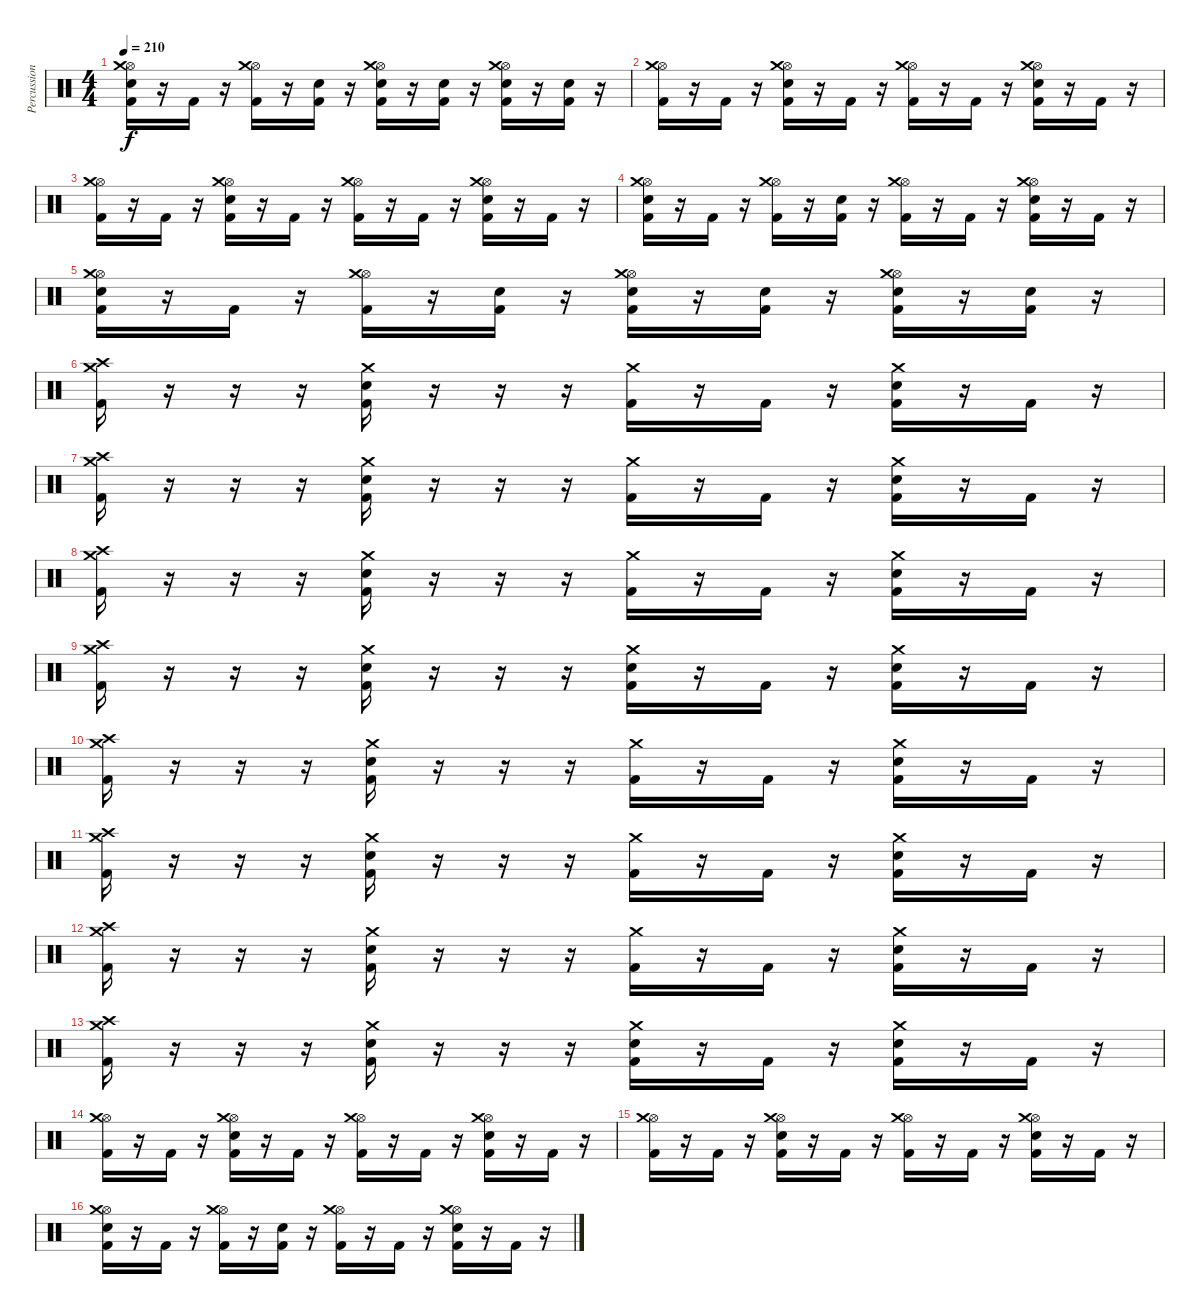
\track ("Percussion" "Percussion") {instrument percussion}
\staff {score}
\articulation defaults
\ts (4 4)
\tempo 210
\clef neutral
\ks c
("Kick (hit) 2" "Electric Snare (hit)" "Hi-Hat (open)" "Crash medium (hit)").16{dy f} r.16 "Kick (hit) 2".16 r.16 ("Kick (hit) 2" "Hi-Hat (open)" "Crash medium (hit)").16 r.16 ("Kick (hit) 2" "Electric Snare (hit)").16 r.16 ("Kick (hit) 2" "Electric Snare (hit)" "Hi-Hat (open)" "Crash medium (hit)").16 r.16 ("Kick (hit) 2" "Electric Snare (hit)").16 r.16 ("Kick (hit) 2" "Electric Snare (hit)" "Hi-Hat (open)" "Crash medium (hit)").16 r.16 ("Kick (hit) 2" "Electric Snare (hit)").16 r.16 |
("Kick (hit) 2" "Hi-Hat (open)" "Crash medium (hit)").16 r.16 "Kick (hit) 2".16 r.16 ("Kick (hit) 2" "Electric Snare (hit)" "Hi-Hat (open)" "Crash medium (hit)").16 r.16 "Kick (hit) 2".16 r.16 ("Kick (hit) 2" "Hi-Hat (open)" "Crash medium (hit)").16 r.16 "Kick (hit) 2".16 r.16 ("Kick (hit) 2" "Electric Snare (hit)" "Hi-Hat (open)" "Crash medium (hit)").16 r.16 "Kick (hit) 2".16 r.16 |
("Kick (hit) 2" "Hi-Hat (open)" "Crash medium (hit)").16 r.16 "Kick (hit) 2".16 r.16 ("Kick (hit) 2" "Electric Snare (hit)" "Hi-Hat (open)" "Crash medium (hit)").16 r.16 "Kick (hit) 2".16 r.16 ("Kick (hit) 2" "Hi-Hat (open)" "Crash medium (hit)").16 r.16 "Kick (hit) 2".16 r.16 ("Kick (hit) 2" "Electric Snare (hit)" "Hi-Hat (open)" "Crash medium (hit)").16 r.16 "Kick (hit) 2".16 r.16 |
("Kick (hit) 2" "Electric Snare (hit)" "Hi-Hat (open)" "Crash medium (hit)").16 r.16 "Kick (hit) 2".16 r.16 ("Kick (hit) 2" "Hi-Hat (open)" "Crash medium (hit)").16 r.16 ("Kick (hit) 2" "Electric Snare (hit)").16 r.16 ("Kick (hit) 2" "Hi-Hat (open)" "Crash medium (hit)").16 r.16 "Kick (hit) 2".16 r.16 ("Kick (hit) 2" "Electric Snare (hit)" "Hi-Hat (open)" "Crash medium (hit)").16 r.16 "Kick (hit) 2".16 r.16 |
("Kick (hit) 2" "Electric Snare (hit)" "Hi-Hat (open)" "Crash medium (hit)").16 r.16 "Kick (hit) 2".16 r.16 ("Kick (hit) 2" "Hi-Hat (open)" "Crash medium (hit)").16 r.16 ("Kick (hit) 2" "Electric Snare (hit)").16 r.16 ("Kick (hit) 2" "Electric Snare (hit)" "Hi-Hat (open)" "Crash medium (hit)").16 r.16 ("Kick (hit) 2" "Electric Snare (hit)").16 r.16 ("Kick (hit) 2" "Electric Snare (hit)" "Hi-Hat (open)" "Crash medium (hit)").16 r.16 ("Kick (hit) 2" "Electric Snare (hit)").16 r.16 |
("Kick (hit) 2" "Crash high (hit)" "Crash medium (hit)").16 r.16 r.16 r.16 ("Kick (hit) 2" "Electric Snare (hit)" "Crash medium (hit)").16 r.16 r.16 r.16 ("Kick (hit) 2" "Crash medium (hit)").16 r.16 "Kick (hit) 2".16 r.16 ("Kick (hit) 2" "Electric Snare (hit)" "Crash medium (hit)").16 r.16 "Kick (hit) 2".16 r.16 |
("Kick (hit) 2" "Crash high (hit)" "Crash medium (hit)").16 r.16 r.16 r.16 ("Kick (hit) 2" "Electric Snare (hit)" "Crash medium (hit)").16 r.16 r.16 r.16 ("Kick (hit) 2" "Crash medium (hit)").16 r.16 "Kick (hit) 2".16 r.16 ("Kick (hit) 2" "Electric Snare (hit)" "Crash medium (hit)").16 r.16 "Kick (hit) 2".16 r.16 |
("Kick (hit) 2" "Crash high (hit)" "Crash medium (hit)").16 r.16 r.16 r.16 ("Kick (hit) 2" "Electric Snare (hit)" "Crash medium (hit)").16 r.16 r.16 r.16 ("Kick (hit) 2" "Crash medium (hit)").16 r.16 "Kick (hit) 2".16 r.16 ("Kick (hit) 2" "Electric Snare (hit)" "Crash medium (hit)").16 r.16 "Kick (hit) 2".16 r.16 |
("Kick (hit) 2" "Crash high (hit)" "Crash medium (hit)").16 r.16 r.16 r.16 ("Kick (hit) 2" "Electric Snare (hit)" "Crash medium (hit)").16 r.16 r.16 r.16 ("Kick (hit) 2" "Electric Snare (hit)" "Crash medium (hit)").16 r.16 "Kick (hit) 2".16 r.16 ("Kick (hit) 2" "Electric Snare (hit)" "Crash medium (hit)").16 r.16 "Kick (hit) 2".16 r.16 |
("Kick (hit) 2" "Crash high (hit)" "Crash medium (hit)").16 r.16 r.16 r.16 ("Kick (hit) 2" "Electric Snare (hit)" "Crash medium (hit)").16 r.16 r.16 r.16 ("Kick (hit) 2" "Crash medium (hit)").16 r.16 "Kick (hit) 2".16 r.16 ("Kick (hit) 2" "Electric Snare (hit)" "Crash medium (hit)").16 r.16 "Kick (hit) 2".16 r.16 |
("Kick (hit) 2" "Crash high (hit)" "Crash medium (hit)").16 r.16 r.16 r.16 ("Kick (hit) 2" "Electric Snare (hit)" "Crash medium (hit)").16 r.16 r.16 r.16 ("Kick (hit) 2" "Crash medium (hit)").16 r.16 "Kick (hit) 2".16 r.16 ("Kick (hit) 2" "Electric Snare (hit)" "Crash medium (hit)").16 r.16 "Kick (hit) 2".16 r.16 |
("Kick (hit) 2" "Crash high (hit)" "Crash medium (hit)").16 r.16 r.16 r.16 ("Kick (hit) 2" "Electric Snare (hit)" "Crash medium (hit)").16 r.16 r.16 r.16 ("Kick (hit) 2" "Crash medium (hit)").16 r.16 "Kick (hit) 2".16 r.16 ("Kick (hit) 2" "Electric Snare (hit)" "Crash medium (hit)").16 r.16 "Kick (hit) 2".16 r.16 |
("Kick (hit) 2" "Crash high (hit)" "Crash medium (hit)").16 r.16 r.16 r.16 ("Kick (hit) 2" "Electric Snare (hit)" "Crash medium (hit)").16 r.16 r.16 r.16 ("Kick (hit) 2" "Electric Snare (hit)" "Crash medium (hit)").16 r.16 "Kick (hit) 2".16 r.16 ("Kick (hit) 2" "Electric Snare (hit)" "Crash medium (hit)").16 r.16 "Kick (hit) 2".16 r.16 |
("Kick (hit) 2" "Hi-Hat (open)" "Crash medium (hit)").16 r.16 "Kick (hit) 2".16 r.16 ("Kick (hit) 2" "Electric Snare (hit)" "Hi-Hat (open)" "Crash medium (hit)").16 r.16 "Kick (hit) 2".16 r.16 ("Kick (hit) 2" "Hi-Hat (open)" "Crash medium (hit)").16 r.16 "Kick (hit) 2".16 r.16 ("Kick (hit) 2" "Electric Snare (hit)" "Hi-Hat (open)" "Crash medium (hit)").16 r.16 "Kick (hit) 2".16 r.16 |
("Kick (hit) 2" "Hi-Hat (open)" "Crash medium (hit)").16 r.16 "Kick (hit) 2".16 r.16 ("Kick (hit) 2" "Electric Snare (hit)" "Hi-Hat (open)" "Crash medium (hit)").16 r.16 "Kick (hit) 2".16 r.16 ("Kick (hit) 2" "Hi-Hat (open)" "Crash medium (hit)").16 r.16 "Kick (hit) 2".16 r.16 ("Kick (hit) 2" "Electric Snare (hit)" "Hi-Hat (open)" "Crash medium (hit)").16 r.16 "Kick (hit) 2".16 r.16 |
("Kick (hit) 2" "Electric Snare (hit)" "Hi-Hat (open)" "Crash medium (hit)").16 r.16 "Kick (hit) 2".16 r.16 ("Kick (hit) 2" "Hi-Hat (open)" "Crash medium (hit)").16 r.16 ("Kick (hit) 2" "Electric Snare (hit)").16 r.16 ("Kick (hit) 2" "Hi-Hat (open)" "Crash medium (hit)").16 r.16 "Kick (hit) 2".16 r.16 ("Kick (hit) 2" "Electric Snare (hit)" "Hi-Hat (open)" "Crash medium (hit)").16 r.16 "Kick (hit) 2".16 r.16
